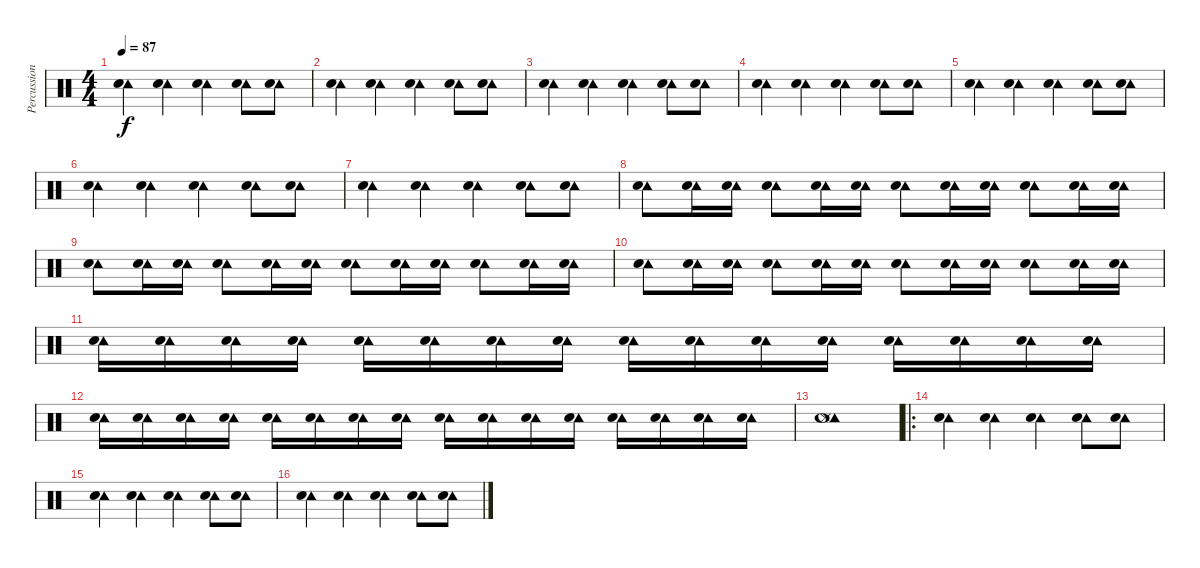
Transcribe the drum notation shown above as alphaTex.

\track ("Percussion" "Percussion") {instrument percussion}
\staff {score}
\articulation defaults
\ts (4 4)
\tempo 87
\clef neutral
\ks c
("Tambourine (hit)" "Snare (hit) 2").4{dy f} ("Tambourine (hit)" "Snare (hit) 2").4 ("Tambourine (hit)" "Snare (hit) 2").4 ("Tambourine (hit)" "Snare (hit) 2").8 ("Tambourine (hit)" "Snare (hit) 2").8 |
("Tambourine (hit)" "Snare (hit) 2").4 ("Tambourine (hit)" "Snare (hit) 2").4 ("Tambourine (hit)" "Snare (hit) 2").4 ("Tambourine (hit)" "Snare (hit) 2").8 ("Tambourine (hit)" "Snare (hit) 2").8 |
("Tambourine (hit)" "Snare (hit) 2").4 ("Tambourine (hit)" "Snare (hit) 2").4 ("Tambourine (hit)" "Snare (hit) 2").4 ("Tambourine (hit)" "Snare (hit) 2").8 ("Tambourine (hit)" "Snare (hit) 2").8 |
("Tambourine (hit)" "Snare (hit) 2").4 ("Tambourine (hit)" "Snare (hit) 2").4 ("Tambourine (hit)" "Snare (hit) 2").4 ("Tambourine (hit)" "Snare (hit) 2").8 ("Tambourine (hit)" "Snare (hit) 2").8 |
("Tambourine (hit)" "Snare (hit) 2").4 ("Tambourine (hit)" "Snare (hit) 2").4 ("Tambourine (hit)" "Snare (hit) 2").4 ("Tambourine (hit)" "Snare (hit) 2").8 ("Tambourine (hit)" "Snare (hit) 2").8 |
("Tambourine (hit)" "Snare (hit) 2").4 ("Tambourine (hit)" "Snare (hit) 2").4 ("Tambourine (hit)" "Snare (hit) 2").4 ("Tambourine (hit)" "Snare (hit) 2").8 ("Tambourine (hit)" "Snare (hit) 2").8 |
("Tambourine (hit)" "Snare (hit) 2").4 ("Tambourine (hit)" "Snare (hit) 2").4 ("Tambourine (hit)" "Snare (hit) 2").4 ("Tambourine (hit)" "Snare (hit) 2").8 ("Tambourine (hit)" "Snare (hit) 2").8 |
("Tambourine (hit)" "Snare (hit) 2").8 ("Tambourine (hit)" "Snare (hit) 2").16 ("Tambourine (hit)" "Snare (hit) 2").16 ("Tambourine (hit)" "Snare (hit) 2").8 ("Tambourine (hit)" "Snare (hit) 2").16 ("Tambourine (hit)" "Snare (hit) 2").16 ("Tambourine (hit)" "Snare (hit) 2").8 ("Tambourine (hit)" "Snare (hit) 2").16 ("Tambourine (hit)" "Snare (hit) 2").16 ("Tambourine (hit)" "Snare (hit) 2").8 ("Tambourine (hit)" "Snare (hit) 2").16 ("Tambourine (hit)" "Snare (hit) 2").16 |
("Tambourine (hit)" "Snare (hit) 2").8 ("Tambourine (hit)" "Snare (hit) 2").16 ("Tambourine (hit)" "Snare (hit) 2").16 ("Tambourine (hit)" "Snare (hit) 2").8 ("Tambourine (hit)" "Snare (hit) 2").16 ("Tambourine (hit)" "Snare (hit) 2").16 ("Tambourine (hit)" "Snare (hit) 2").8 ("Tambourine (hit)" "Snare (hit) 2").16 ("Tambourine (hit)" "Snare (hit) 2").16 ("Tambourine (hit)" "Snare (hit) 2").8 ("Tambourine (hit)" "Snare (hit) 2").16 ("Tambourine (hit)" "Snare (hit) 2").16 |
("Tambourine (hit)" "Snare (hit) 2").8 ("Tambourine (hit)" "Snare (hit) 2").16 ("Tambourine (hit)" "Snare (hit) 2").16 ("Tambourine (hit)" "Snare (hit) 2").8 ("Tambourine (hit)" "Snare (hit) 2").16 ("Tambourine (hit)" "Snare (hit) 2").16 ("Tambourine (hit)" "Snare (hit) 2").8 ("Tambourine (hit)" "Snare (hit) 2").16 ("Tambourine (hit)" "Snare (hit) 2").16 ("Tambourine (hit)" "Snare (hit) 2").8 ("Tambourine (hit)" "Snare (hit) 2").16 ("Tambourine (hit)" "Snare (hit) 2").16 |
("Tambourine (hit)" "Snare (hit) 2").16 ("Tambourine (hit)" "Snare (hit) 2").16 ("Tambourine (hit)" "Snare (hit) 2").16 ("Tambourine (hit)" "Snare (hit) 2").16 ("Tambourine (hit)" "Snare (hit) 2").16 ("Tambourine (hit)" "Snare (hit) 2").16 ("Tambourine (hit)" "Snare (hit) 2").16 ("Tambourine (hit)" "Snare (hit) 2").16 ("Tambourine (hit)" "Snare (hit) 2").16 ("Tambourine (hit)" "Snare (hit) 2").16 ("Tambourine (hit)" "Snare (hit) 2").16 ("Tambourine (hit)" "Snare (hit) 2").16 ("Tambourine (hit)" "Snare (hit) 2").16 ("Tambourine (hit)" "Snare (hit) 2").16 ("Tambourine (hit)" "Snare (hit) 2").16 ("Tambourine (hit)" "Snare (hit) 2").16 |
("Tambourine (hit)" "Snare (hit) 2").16 ("Tambourine (hit)" "Snare (hit) 2").16 ("Tambourine (hit)" "Snare (hit) 2").16 ("Tambourine (hit)" "Snare (hit) 2").16 ("Tambourine (hit)" "Snare (hit) 2").16 ("Tambourine (hit)" "Snare (hit) 2").16 ("Tambourine (hit)" "Snare (hit) 2").16 ("Tambourine (hit)" "Snare (hit) 2").16 ("Tambourine (hit)" "Snare (hit) 2").16 ("Tambourine (hit)" "Snare (hit) 2").16 ("Tambourine (hit)" "Snare (hit) 2").16 ("Tambourine (hit)" "Snare (hit) 2").16 ("Tambourine (hit)" "Snare (hit) 2").16 ("Tambourine (hit)" "Snare (hit) 2").16 ("Tambourine (hit)" "Snare (hit) 2").16 ("Tambourine (hit)" "Snare (hit) 2").16 |
("Tambourine (hit)" "Snare (hit) 2" "Snare (side stick) 3").1 |
\ro
("Tambourine (hit)" "Snare (hit) 2").4 ("Tambourine (hit)" "Snare (hit) 2").4 ("Tambourine (hit)" "Snare (hit) 2").4 ("Tambourine (hit)" "Snare (hit) 2").8 ("Tambourine (hit)" "Snare (hit) 2").8 |
("Tambourine (hit)" "Snare (hit) 2").4 ("Tambourine (hit)" "Snare (hit) 2").4 ("Tambourine (hit)" "Snare (hit) 2").4 ("Tambourine (hit)" "Snare (hit) 2").8 ("Tambourine (hit)" "Snare (hit) 2").8 |
("Tambourine (hit)" "Snare (hit) 2").4 ("Tambourine (hit)" "Snare (hit) 2").4 ("Tambourine (hit)" "Snare (hit) 2").4 ("Tambourine (hit)" "Snare (hit) 2").8 ("Tambourine (hit)" "Snare (hit) 2").8
